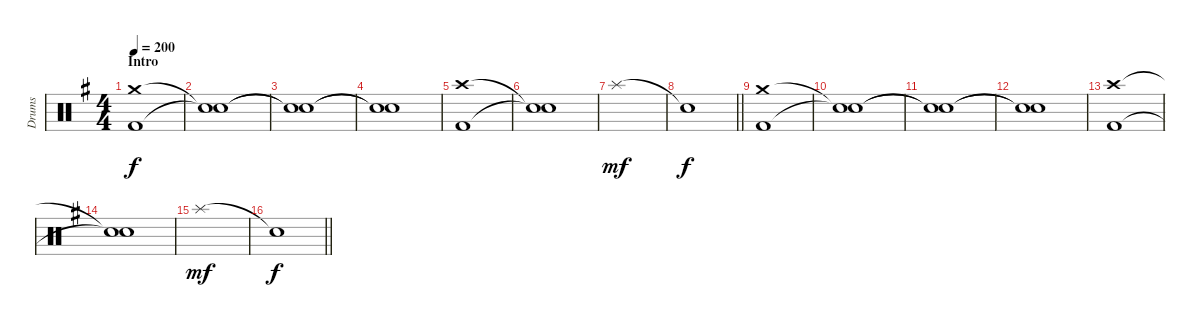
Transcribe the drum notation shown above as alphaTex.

\track ("Drums" "Drums") {instrument percussion}
\staff {score}
\articulation defaults
\ts (4 4)
\section ("" "Intro")
\tempo 200
\clef neutral
\ks g
("Crash medium (hit)" "Kick (hit) 2").1{dy f} |
("Snare (hit)"{t} "Snare (hit)"{t}).1 |
("Snare (hit)"{t} "Snare (hit)"{t}).1 |
("Snare (hit)"{t} "Snare (hit)"{t}).1 |
("Crash high (hit)" "Kick (hit) 2").1 |
("Snare (hit)"{t} "Snare (hit)"{t}).1 |
"Splash (hit)".1{dy mf} |
\barLineRight lightlight "Snare (hit)"{t}.1{dy f}
|
\section ("" "")
("Crash medium (hit)" "Kick (hit) 2").1 |
("Snare (hit)"{t} "Snare (hit)"{t}).1 |
("Snare (hit)"{t} "Snare (hit)"{t}).1 |
("Snare (hit)"{t} "Snare (hit)"{t}).1 |
("Crash high (hit)" "Kick (hit) 2").1 |
("Snare (hit)"{t} "Snare (hit)"{t}).1 |
"Splash (hit)".1{dy mf} |
\barLineRight lightlight "Snare (hit)"{t}.1{dy f}
